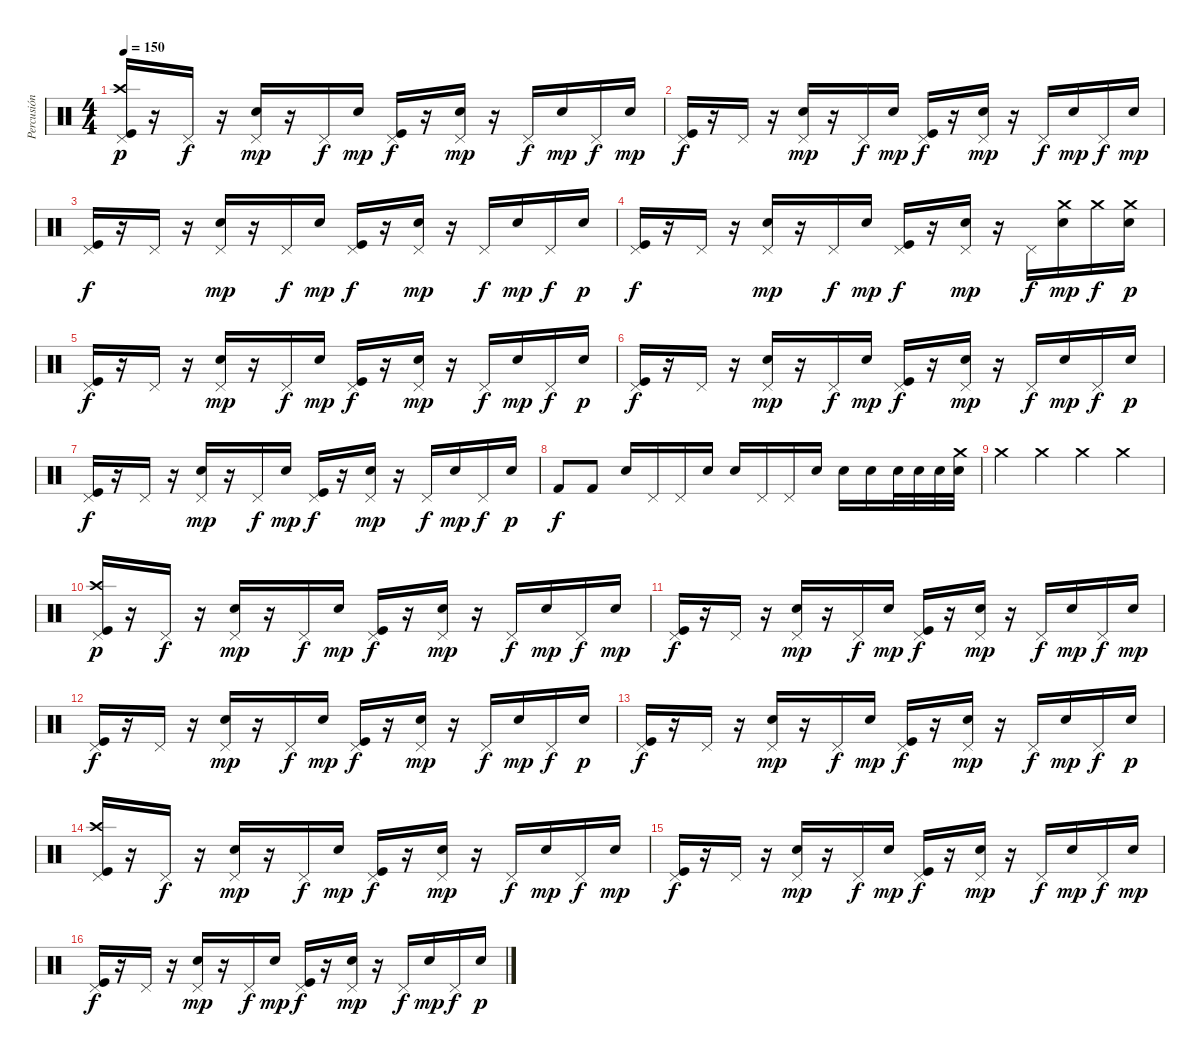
\track ("Percusión" "Percusión") {instrument percussion}
\staff {score}
\articulation defaults
\ts (4 4)
\tempo 150
\clef neutral
\ks c
("Pedal Hi-Hat (hit)" "Crash high (hit)" "Kick (hit)").16{dy p} r.16 "Pedal Hi-Hat (hit)".16{dy f} r.16 ("Pedal Hi-Hat (hit)" "Electric Snare (hit)").16{dy mp} r.16 "Pedal Hi-Hat (hit)".16{dy f} "Electric Snare (hit)".16{dy mp} ("Pedal Hi-Hat (hit)" "Kick (hit)").16{dy f} r.16 ("Pedal Hi-Hat (hit)" "Electric Snare (hit)").16{dy mp} r.16 "Pedal Hi-Hat (hit)".16{dy f} "Electric Snare (hit)".16{dy mp} "Pedal Hi-Hat (hit)".16{dy f} "Electric Snare (hit)".16{dy mp} |
("Pedal Hi-Hat (hit)" "Kick (hit)").16{dy f} r.16 "Pedal Hi-Hat (hit)".16 r.16 ("Pedal Hi-Hat (hit)" "Electric Snare (hit)").16{dy mp} r.16 "Pedal Hi-Hat (hit)".16{dy f} "Electric Snare (hit)".16{dy mp} ("Pedal Hi-Hat (hit)" "Kick (hit)").16{dy f} r.16 ("Pedal Hi-Hat (hit)" "Electric Snare (hit)").16{dy mp} r.16 "Pedal Hi-Hat (hit)".16{dy f} "Electric Snare (hit)".16{dy mp} "Pedal Hi-Hat (hit)".16{dy f} "Electric Snare (hit)".16{dy mp} |
("Pedal Hi-Hat (hit)" "Kick (hit)").16{dy f} r.16 "Pedal Hi-Hat (hit)".16 r.16 ("Pedal Hi-Hat (hit)" "Electric Snare (hit)").16{dy mp} r.16 "Pedal Hi-Hat (hit)".16{dy f} "Electric Snare (hit)".16{dy mp} ("Pedal Hi-Hat (hit)" "Kick (hit)").16{dy f} r.16 ("Pedal Hi-Hat (hit)" "Electric Snare (hit)").16{dy mp} r.16 "Pedal Hi-Hat (hit)".16{dy f} "Electric Snare (hit)".16{dy mp} "Pedal Hi-Hat (hit)".16{dy f} "Electric Snare (hit)".16{dy p} |
("Pedal Hi-Hat (hit)" "Kick (hit)").16{dy f} r.16 "Pedal Hi-Hat (hit)".16 r.16 ("Pedal Hi-Hat (hit)" "Electric Snare (hit)").16{dy mp} r.16 "Pedal Hi-Hat (hit)".16{dy f} "Electric Snare (hit)".16{dy mp} ("Pedal Hi-Hat (hit)" "Kick (hit)").16{dy f} r.16 ("Pedal Hi-Hat (hit)" "Electric Snare (hit)").16{dy mp} r.16 "Pedal Hi-Hat (hit)".16{dy f} ("Crash medium (hit)" "Electric Snare (hit)").16{dy mp} "Crash medium (hit)".16{dy f} ("Crash medium (hit)" "Electric Snare (hit)").16{dy p} |
("Pedal Hi-Hat (hit)" "Kick (hit)").16{dy f} r.16 "Pedal Hi-Hat (hit)".16 r.16 ("Pedal Hi-Hat (hit)" "Electric Snare (hit)").16{dy mp} r.16 "Pedal Hi-Hat (hit)".16{dy f} "Electric Snare (hit)".16{dy mp} ("Pedal Hi-Hat (hit)" "Kick (hit)").16{dy f} r.16 ("Pedal Hi-Hat (hit)" "Electric Snare (hit)").16{dy mp} r.16 "Pedal Hi-Hat (hit)".16{dy f} "Electric Snare (hit)".16{dy mp} "Pedal Hi-Hat (hit)".16{dy f} "Electric Snare (hit)".16{dy p} |
("Pedal Hi-Hat (hit)" "Kick (hit)").16{dy f} r.16 "Pedal Hi-Hat (hit)".16 r.16 ("Pedal Hi-Hat (hit)" "Electric Snare (hit)").16{dy mp} r.16 "Pedal Hi-Hat (hit)".16{dy f} "Electric Snare (hit)".16{dy mp} ("Pedal Hi-Hat (hit)" "Kick (hit)").16{dy f} r.16 ("Pedal Hi-Hat (hit)" "Electric Snare (hit)").16{dy mp} r.16 "Pedal Hi-Hat (hit)".16{dy f} "Electric Snare (hit)".16{dy mp} "Pedal Hi-Hat (hit)".16{dy f} "Electric Snare (hit)".16{dy p} |
("Pedal Hi-Hat (hit)" "Kick (hit)").16{dy f} r.16 "Pedal Hi-Hat (hit)".16 r.16 ("Pedal Hi-Hat (hit)" "Electric Snare (hit)").16{dy mp} r.16 "Pedal Hi-Hat (hit)".16{dy f} "Electric Snare (hit)".16{dy mp} ("Pedal Hi-Hat (hit)" "Kick (hit)").16{dy f} r.16 ("Pedal Hi-Hat (hit)" "Electric Snare (hit)").16{dy mp} r.16 "Pedal Hi-Hat (hit)".16{dy f} "Electric Snare (hit)".16{dy mp} "Pedal Hi-Hat (hit)".16{dy f} "Electric Snare (hit)".16{dy p} |
"Kick (hit) 2".8{dy f} "Kick (hit) 2".8 "Electric Snare (hit)".16 "Pedal Hi-Hat (hit)".16 "Pedal Hi-Hat (hit)".16 "Electric Snare (hit)".16 "Electric Snare (hit)".16 "Pedal Hi-Hat (hit)".16 "Pedal Hi-Hat (hit)".16 "Electric Snare (hit)".16 "Electric Snare (hit)".16 "Electric Snare (hit)".16 "Electric Snare (hit)".32 "Electric Snare (hit)".32 "Electric Snare (hit)".32 ("Electric Snare (hit)" "Crash medium (hit)").32 |
"Crash medium (hit)".4 "Crash medium (hit)".4 "Crash medium (hit)".4 "Crash medium (hit)".4 |
("Pedal Hi-Hat (hit)" "Crash high (hit)" "Kick (hit)").16{dy p} r.16 "Pedal Hi-Hat (hit)".16{dy f} r.16 ("Pedal Hi-Hat (hit)" "Electric Snare (hit)").16{dy mp} r.16 "Pedal Hi-Hat (hit)".16{dy f} "Electric Snare (hit)".16{dy mp} ("Pedal Hi-Hat (hit)" "Kick (hit)").16{dy f} r.16 ("Pedal Hi-Hat (hit)" "Electric Snare (hit)").16{dy mp} r.16 "Pedal Hi-Hat (hit)".16{dy f} "Electric Snare (hit)".16{dy mp} "Pedal Hi-Hat (hit)".16{dy f} "Electric Snare (hit)".16{dy mp} |
("Pedal Hi-Hat (hit)" "Kick (hit)").16{dy f} r.16 "Pedal Hi-Hat (hit)".16 r.16 ("Pedal Hi-Hat (hit)" "Electric Snare (hit)").16{dy mp} r.16 "Pedal Hi-Hat (hit)".16{dy f} "Electric Snare (hit)".16{dy mp} ("Pedal Hi-Hat (hit)" "Kick (hit)").16{dy f} r.16 ("Pedal Hi-Hat (hit)" "Electric Snare (hit)").16{dy mp} r.16 "Pedal Hi-Hat (hit)".16{dy f} "Electric Snare (hit)".16{dy mp} "Pedal Hi-Hat (hit)".16{dy f} "Electric Snare (hit)".16{dy mp} |
("Pedal Hi-Hat (hit)" "Kick (hit)").16{dy f} r.16 "Pedal Hi-Hat (hit)".16 r.16 ("Pedal Hi-Hat (hit)" "Electric Snare (hit)").16{dy mp} r.16 "Pedal Hi-Hat (hit)".16{dy f} "Electric Snare (hit)".16{dy mp} ("Pedal Hi-Hat (hit)" "Kick (hit)").16{dy f} r.16 ("Pedal Hi-Hat (hit)" "Electric Snare (hit)").16{dy mp} r.16 "Pedal Hi-Hat (hit)".16{dy f} "Electric Snare (hit)".16{dy mp} "Pedal Hi-Hat (hit)".16{dy f} "Electric Snare (hit)".16{dy p} |
("Pedal Hi-Hat (hit)" "Kick (hit)").16{dy f} r.16 "Pedal Hi-Hat (hit)".16 r.16 ("Pedal Hi-Hat (hit)" "Electric Snare (hit)").16{dy mp} r.16 "Pedal Hi-Hat (hit)".16{dy f} "Electric Snare (hit)".16{dy mp} ("Pedal Hi-Hat (hit)" "Kick (hit)").16{dy f} r.16 ("Pedal Hi-Hat (hit)" "Electric Snare (hit)").16{dy mp} r.16 "Pedal Hi-Hat (hit)".16{dy f} "Electric Snare (hit)".16{dy mp} "Pedal Hi-Hat (hit)".16{dy f} "Electric Snare (hit)".16{dy p} |
("Pedal Hi-Hat (hit)" "Crash high (hit)" "Kick (hit)").16 r.16 "Pedal Hi-Hat (hit)".16{dy f} r.16 ("Pedal Hi-Hat (hit)" "Electric Snare (hit)").16{dy mp} r.16 "Pedal Hi-Hat (hit)".16{dy f} "Electric Snare (hit)".16{dy mp} ("Pedal Hi-Hat (hit)" "Kick (hit)").16{dy f} r.16 ("Pedal Hi-Hat (hit)" "Electric Snare (hit)").16{dy mp} r.16 "Pedal Hi-Hat (hit)".16{dy f} "Electric Snare (hit)".16{dy mp} "Pedal Hi-Hat (hit)".16{dy f} "Electric Snare (hit)".16{dy mp} |
("Pedal Hi-Hat (hit)" "Kick (hit)").16{dy f} r.16 "Pedal Hi-Hat (hit)".16 r.16 ("Pedal Hi-Hat (hit)" "Electric Snare (hit)").16{dy mp} r.16 "Pedal Hi-Hat (hit)".16{dy f} "Electric Snare (hit)".16{dy mp} ("Pedal Hi-Hat (hit)" "Kick (hit)").16{dy f} r.16 ("Pedal Hi-Hat (hit)" "Electric Snare (hit)").16{dy mp} r.16 "Pedal Hi-Hat (hit)".16{dy f} "Electric Snare (hit)".16{dy mp} "Pedal Hi-Hat (hit)".16{dy f} "Electric Snare (hit)".16{dy mp} |
("Pedal Hi-Hat (hit)" "Kick (hit)").16{dy f} r.16 "Pedal Hi-Hat (hit)".16 r.16 ("Pedal Hi-Hat (hit)" "Electric Snare (hit)").16{dy mp} r.16 "Pedal Hi-Hat (hit)".16{dy f} "Electric Snare (hit)".16{dy mp} ("Pedal Hi-Hat (hit)" "Kick (hit)").16{dy f} r.16 ("Pedal Hi-Hat (hit)" "Electric Snare (hit)").16{dy mp} r.16 "Pedal Hi-Hat (hit)".16{dy f} "Electric Snare (hit)".16{dy mp} "Pedal Hi-Hat (hit)".16{dy f} "Electric Snare (hit)".16{dy p}
